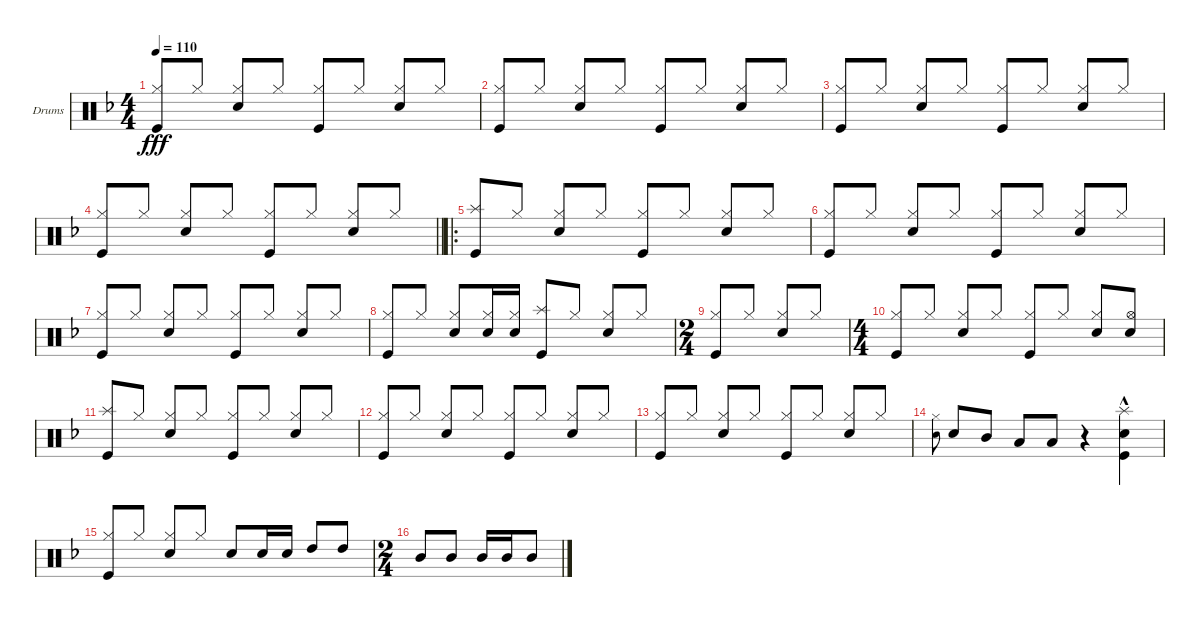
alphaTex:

\defaultSystemsLayout 4
\bracketExtendMode groupsimilarinstruments
\firstSystemTrackNameOrientation horizontal
\otherSystemsTrackNameOrientation horizontal
\track ("Drumkit" "Drums") {instrument percussion}
\staff {score}
\articulation defaults
\ts (4 4)
\tempo 110
\clef neutral
\scale
0.472222
\ks f
("Hi-Hat (closed)" "Kick (hit)").8{dy fff beam invert} "Hi-Hat (closed)".8 ("Hi-Hat (closed)" "Snare (hit) 2").8{beam invert} "Hi-Hat (closed)".8 ("Hi-Hat (closed)" "Kick (hit)").8{beam invert} "Hi-Hat (closed)".8 ("Hi-Hat (closed)" "Snare (hit) 2").8{beam invert} "Hi-Hat (closed)".8 |
\scale
0.263889 ("Hi-Hat (closed)" "Kick (hit)").8{beam invert} "Hi-Hat (closed)".8 ("Hi-Hat (closed)" "Snare (hit) 2").8{beam invert} "Hi-Hat (closed)".8 ("Hi-Hat (closed)" "Kick (hit)").8{beam invert} "Hi-Hat (closed)".8 ("Hi-Hat (closed)" "Snare (hit) 2").8{beam invert} "Hi-Hat (closed)".8 |
\scale
0.263889 ("Hi-Hat (closed)" "Kick (hit)").8{beam invert} "Hi-Hat (closed)".8 ("Hi-Hat (closed)" "Snare (hit) 2").8{beam invert} "Hi-Hat (closed)".8 ("Hi-Hat (closed)" "Kick (hit)").8{beam invert} "Hi-Hat (closed)".8 ("Hi-Hat (closed)" "Snare (hit) 2").8{beam invert} "Hi-Hat (closed)".8 |
\barLineRight lightlight
("Hi-Hat (closed)" "Kick (hit)").8{beam invert} "Hi-Hat (closed)".8 ("Hi-Hat (closed)" "Snare (hit) 2").8{beam invert} "Hi-Hat (closed)".8 ("Hi-Hat (closed)" "Kick (hit)").8{beam invert} "Hi-Hat (closed)".8 ("Hi-Hat (closed)" "Snare (hit) 2").8{beam invert} "Hi-Hat (closed)".8 |
\ro
("Kick (hit)" "Splash (hit)").8 "Hi-Hat (closed)".8 ("Hi-Hat (closed)" "Snare (hit) 2").8{beam invert} "Hi-Hat (closed)".8 ("Hi-Hat (closed)" "Kick (hit)").8{beam invert} "Hi-Hat (closed)".8 ("Hi-Hat (closed)" "Snare (hit) 2").8{beam invert} "Hi-Hat (closed)".8 |
("Hi-Hat (closed)" "Kick (hit)").8{beam invert} "Hi-Hat (closed)".8 ("Hi-Hat (closed)" "Snare (hit) 2").8{beam invert} "Hi-Hat (closed)".8 ("Hi-Hat (closed)" "Kick (hit)").8{beam invert} "Hi-Hat (closed)".8 ("Hi-Hat (closed)" "Snare (hit) 2").8{beam invert} "Hi-Hat (closed)".8 |
("Hi-Hat (closed)" "Kick (hit)").8{beam invert} "Hi-Hat (closed)".8 ("Hi-Hat (closed)" "Snare (hit) 2").8{beam invert} "Hi-Hat (closed)".8 ("Hi-Hat (closed)" "Kick (hit)").8{beam invert} "Hi-Hat (closed)".8 ("Hi-Hat (closed)" "Snare (hit) 2").8{beam invert} "Hi-Hat (closed)".8 |
("Hi-Hat (closed)" "Kick (hit)").8{beam invert} "Hi-Hat (closed)".8 ("Hi-Hat (closed)" "Snare (hit) 2").8{beam invert} ("Hi-Hat (closed)" "Snare (hit) 2").16 ("Hi-Hat (closed)" "Snare (hit) 2").16 ("Kick (hit)" "Splash (hit)").8 "Hi-Hat (closed)".8 ("Hi-Hat (closed)" "Snare (hit) 2").8{beam invert} "Hi-Hat (closed)".8 |
\ts (2 4)
("Hi-Hat (closed)" "Kick (hit)").8{beam invert} "Hi-Hat (closed)".8 ("Hi-Hat (closed)" "Snare (hit) 2").8{beam invert} "Hi-Hat (closed)".8 |
\ts (4 4)
("Hi-Hat (closed)" "Kick (hit)").8{beam invert} "Hi-Hat (closed)".8 ("Hi-Hat (closed)" "Snare (hit) 2").8{beam invert} "Hi-Hat (closed)".8 ("Hi-Hat (closed)" "Kick (hit)").8{beam invert} "Hi-Hat (closed)".8 ("Hi-Hat (closed)" "Snare (hit) 2").8{beam invert} ("Hi-Hat (open)" "Snare (hit) 2").8 |
("Kick (hit)" "Splash (hit)").8 "Hi-Hat (closed)".8 ("Hi-Hat (closed)" "Snare (hit) 2").8{beam invert} "Hi-Hat (closed)".8 ("Hi-Hat (closed)" "Kick (hit)").8{beam invert} "Hi-Hat (closed)".8 ("Hi-Hat (closed)" "Snare (hit) 2").8{beam invert} "Hi-Hat (closed)".8 |
("Hi-Hat (closed)" "Kick (hit)").8{beam invert} "Hi-Hat (closed)".8 ("Hi-Hat (closed)" "Snare (hit) 2").8{beam invert} "Hi-Hat (closed)".8 ("Hi-Hat (closed)" "Kick (hit)").8{beam invert} "Hi-Hat (closed)".8 ("Hi-Hat (closed)" "Snare (hit) 2").8{beam invert} "Hi-Hat (closed)".8 |
("Hi-Hat (closed)" "Kick (hit)").8{beam invert} "Hi-Hat (closed)".8 ("Hi-Hat (closed)" "Snare (hit) 2").8{beam invert} "Hi-Hat (closed)".8 ("Hi-Hat (closed)" "Kick (hit)").8{beam invert} "Hi-Hat (closed)".8 ("Hi-Hat (closed)" "Snare (hit) 2").8{beam invert} "Hi-Hat (closed)".8 |
("Hi-Hat (closed)" "Snare (hit) 2").8{gr onbeat beam invert} "Snare (hit) 2".8 "Mid Tom (hit)".8{beam invert} "Low Tom (hit)".8 "Low Tom (hit)".8 r.4 ("Snare (hit) 2" "Splash (hit)"{hac} "Kick (hit)").4 |
("Kick (hit)" "Hi-Hat (closed)").8{beam invert} "Hi-Hat (closed)".8 ("Hi-Hat (closed)" "Snare (hit) 2").8{beam invert} "Hi-Hat (closed)".8 "Snare (hit) 2".8{beam invert} "Snare (hit) 2".16 "Snare (hit) 2".16 "High Tom (hit)".8{beam invert} "High Tom (hit)".8 |
\ts (2 4)
"Mid Tom (hit)".8{beam invert} "Mid Tom (hit)".8 "Mid Tom (hit)".16{beam invert} "Mid Tom (hit)".16 "Mid Tom (hit)".8
